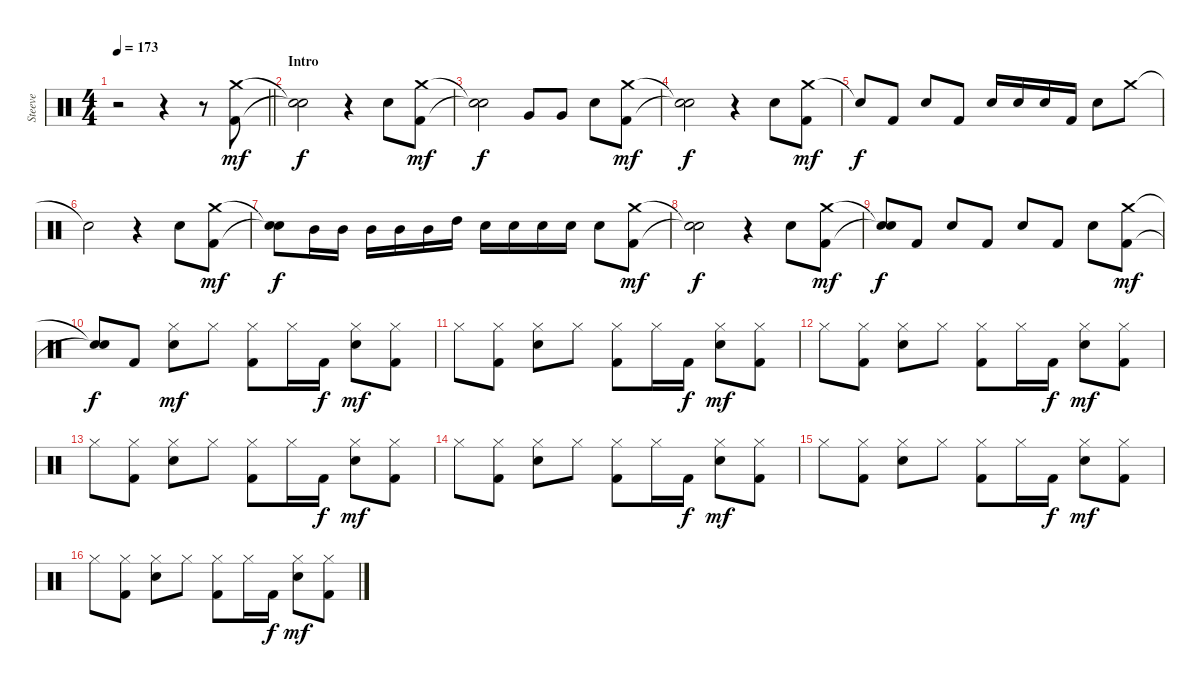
\track ("Steeve" "Steeve") {instrument percussion}
\staff {score}
\articulation defaults
\ts (4 4)
\tempo 173
\clef neutral
\barLineRight lightlight
\ks c
r.2{dy mf} r.4 r.8 ("Crash medium (hit)" "Kick (hit) 2").8 |
\section ("" "Intro")
("Snare (hit)"{t} "Snare (hit)"{t}).2{dy f} r.4 "Electric Snare (hit)".8 ("Crash medium (hit)" "Kick (hit) 2").8{dy mf} |
("Snare (hit)"{t} "Snare (hit)"{t}).2{dy f} "Very Low Tom (hit)".8 "Very Low Tom (hit)".8 "Electric Snare (hit)".8 ("Crash medium (hit)" "Kick (hit) 2").8{dy mf} |
("Snare (hit)"{t} "Snare (hit)"{t}).2{dy f} r.4 "Electric Snare (hit)".8 ("Crash medium (hit)" "Kick (hit) 2").8{dy mf} |
"Snare (hit)"{t}.8{dy f} "Kick (hit) 2".8 "Electric Snare (hit)".8 "Kick (hit) 2".8 "Electric Snare (hit)".16 "Electric Snare (hit)".16 "Electric Snare (hit)".16 "Kick (hit) 2".16 "Electric Snare (hit)".8 "Crash medium (hit)".8 |
"Snare (hit)"{t}.2 r.4 "Electric Snare (hit)".8 ("Crash medium (hit)" "Kick (hit) 2").8{dy mf} |
("Snare (hit)"{t} "Snare (hit)"{t}).8{dy f} "Mid Tom (hit)".16 "Mid Tom (hit)".16 "Mid Tom (hit)".16 "Mid Tom (hit)".16 "Mid Tom (hit)".16 "High Tom (hit)".16 "Electric Snare (hit)".16 "Electric Snare (hit)".16 "Electric Snare (hit)".16 "Electric Snare (hit)".16 "Electric Snare (hit)".8 ("Crash medium (hit)" "Kick (hit) 2").8{dy mf} |
("Snare (hit)"{t} "Snare (hit)"{t}).2{dy f} r.4 "Electric Snare (hit)".8 ("Crash medium (hit)" "Kick (hit) 2").8{dy mf} |
("Snare (hit)"{t} "Snare (hit)"{t}).8{dy f} "Kick (hit) 2".8 "Electric Snare (hit)".8 "Kick (hit) 2".8 "Electric Snare (hit)".8 "Kick (hit) 2".8 "Electric Snare (hit)".8 ("Crash medium (hit)" "Kick (hit) 2").8{dy mf} |
("Snare (hit)"{t} "Snare (hit)"{t}).8{dy f} "Kick (hit) 2".8 ("Hi-Hat (closed)" "Electric Snare (hit)").8{dy mf} "Hi-Hat (closed)".8 ("Hi-Hat (closed)" "Kick (hit) 2").8 "Hi-Hat (closed)".16 "Kick (hit) 2".16{dy f} ("Hi-Hat (closed)" "Electric Snare (hit)").8{dy mf} ("Hi-Hat (closed)" "Kick (hit) 2").8 |
"Hi-Hat (closed)".8 ("Hi-Hat (closed)" "Kick (hit) 2").8 ("Hi-Hat (closed)" "Electric Snare (hit)").8 "Hi-Hat (closed)".8 ("Hi-Hat (closed)" "Kick (hit) 2").8 "Hi-Hat (closed)".16 "Kick (hit) 2".16{dy f} ("Hi-Hat (closed)" "Electric Snare (hit)").8{dy mf} ("Hi-Hat (closed)" "Kick (hit) 2").8 |
"Hi-Hat (closed)".8 ("Hi-Hat (closed)" "Kick (hit) 2").8 ("Hi-Hat (closed)" "Electric Snare (hit)").8 "Hi-Hat (closed)".8 ("Hi-Hat (closed)" "Kick (hit) 2").8 "Hi-Hat (closed)".16 "Kick (hit) 2".16{dy f} ("Hi-Hat (closed)" "Electric Snare (hit)").8{dy mf} ("Hi-Hat (closed)" "Kick (hit) 2").8 |
"Hi-Hat (closed)".8 ("Hi-Hat (closed)" "Kick (hit) 2").8 ("Hi-Hat (closed)" "Electric Snare (hit)").8 "Hi-Hat (closed)".8 ("Hi-Hat (closed)" "Kick (hit) 2").8 "Hi-Hat (closed)".16 "Kick (hit) 2".16{dy f} ("Hi-Hat (closed)" "Electric Snare (hit)").8{dy mf} ("Hi-Hat (closed)" "Kick (hit) 2").8 |
"Hi-Hat (closed)".8 ("Hi-Hat (closed)" "Kick (hit) 2").8 ("Hi-Hat (closed)" "Electric Snare (hit)").8 "Hi-Hat (closed)".8 ("Hi-Hat (closed)" "Kick (hit) 2").8 "Hi-Hat (closed)".16 "Kick (hit) 2".16{dy f} ("Hi-Hat (closed)" "Electric Snare (hit)").8{dy mf} ("Hi-Hat (closed)" "Kick (hit) 2").8 |
"Hi-Hat (closed)".8 ("Hi-Hat (closed)" "Kick (hit) 2").8 ("Hi-Hat (closed)" "Electric Snare (hit)").8 "Hi-Hat (closed)".8 ("Hi-Hat (closed)" "Kick (hit) 2").8 "Hi-Hat (closed)".16 "Kick (hit) 2".16{dy f} ("Hi-Hat (closed)" "Electric Snare (hit)").8{dy mf} ("Hi-Hat (closed)" "Kick (hit) 2").8 |
"Hi-Hat (closed)".8 ("Hi-Hat (closed)" "Kick (hit) 2").8 ("Hi-Hat (closed)" "Electric Snare (hit)").8 "Hi-Hat (closed)".8 ("Hi-Hat (closed)" "Kick (hit) 2").8 "Hi-Hat (closed)".16 "Kick (hit) 2".16{dy f} ("Hi-Hat (closed)" "Electric Snare (hit)").8{dy mf} ("Hi-Hat (closed)" "Kick (hit) 2").8
